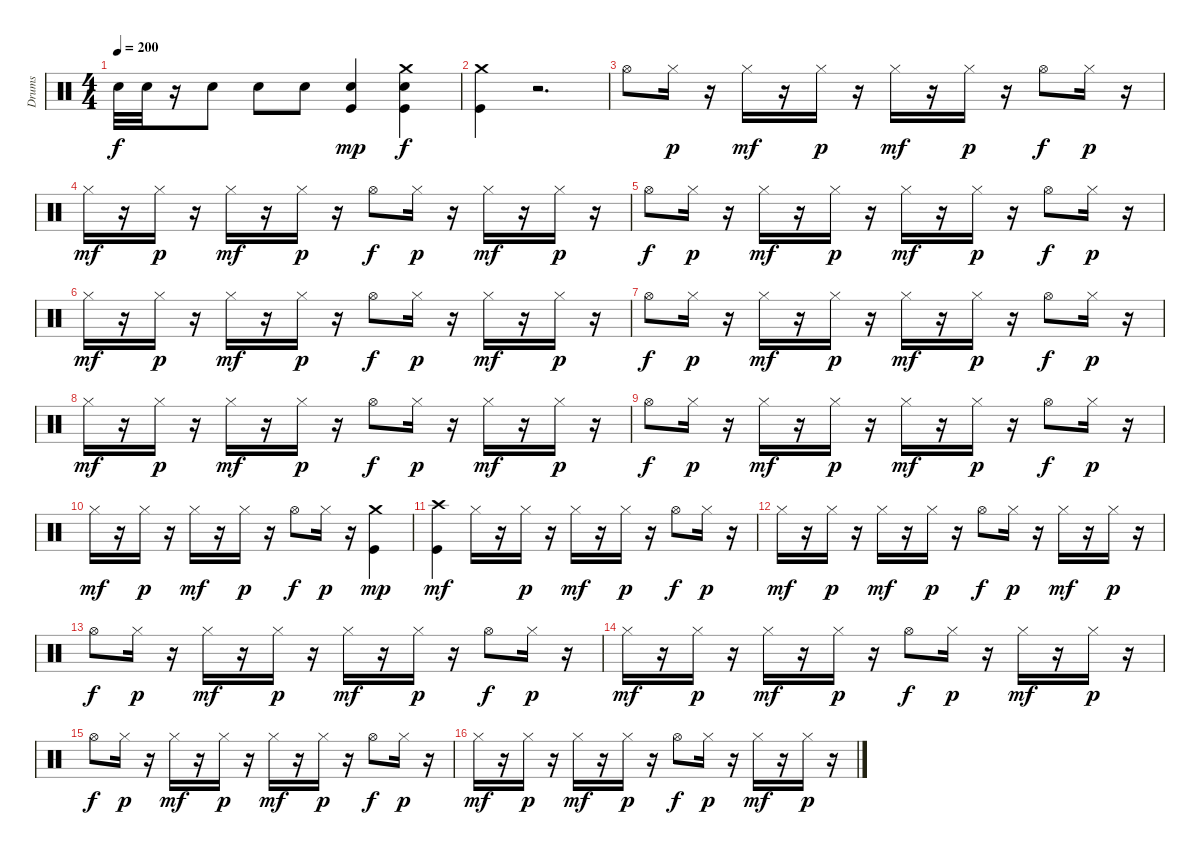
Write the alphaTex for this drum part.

\track ("Drums" "Drums") {instrument percussion}
\staff {score}
\articulation defaults
\ts (4 4)
\tempo 200
\clef neutral
\ks c "Electric Snare (hit)".32{dy f volume 11 balance 8} "Electric Snare (hit)".32
r.16 "Electric Snare (hit)".8 "Electric Snare (hit)".8 "Electric Snare (hit)".8 ("Kick (hit)" "Electric Snare (hit)").4{dy mp} ("Kick (hit)" "Crash medium (hit)" "Electric Snare (hit)").4{dy f} |
("Kick (hit)" "Crash medium (hit)").4 r.2{d} |
"Hi-Hat (open)".8 "Hi-Hat (closed)".16{dy p} r.16 "Hi-Hat (closed)".16{dy mf} r.16 "Hi-Hat (closed)".16{dy p} r.16 "Hi-Hat (closed)".16{dy mf} r.16 "Hi-Hat (closed)".16{dy p} r.16 "Hi-Hat (open)".8{dy f} "Hi-Hat (closed)".16{dy p} r.16 |
"Hi-Hat (closed)".16{dy mf} r.16 "Hi-Hat (closed)".16{dy p} r.16 "Hi-Hat (closed)".16{dy mf} r.16 "Hi-Hat (closed)".16{dy p} r.16 "Hi-Hat (open)".8{dy f} "Hi-Hat (closed)".16{dy p} r.16 "Hi-Hat (closed)".16{dy mf} r.16 "Hi-Hat (closed)".16{dy p} r.16 |
"Hi-Hat (open)".8{dy f} "Hi-Hat (closed)".16{dy p} r.16 "Hi-Hat (closed)".16{dy mf} r.16 "Hi-Hat (closed)".16{dy p} r.16 "Hi-Hat (closed)".16{dy mf} r.16 "Hi-Hat (closed)".16{dy p} r.16 "Hi-Hat (open)".8{dy f} "Hi-Hat (closed)".16{dy p} r.16 |
"Hi-Hat (closed)".16{dy mf} r.16 "Hi-Hat (closed)".16{dy p} r.16 "Hi-Hat (closed)".16{dy mf} r.16 "Hi-Hat (closed)".16{dy p} r.16 "Hi-Hat (open)".8{dy f} "Hi-Hat (closed)".16{dy p} r.16 "Hi-Hat (closed)".16{dy mf} r.16 "Hi-Hat (closed)".16{dy p} r.16 |
"Hi-Hat (open)".8{dy f} "Hi-Hat (closed)".16{dy p} r.16 "Hi-Hat (closed)".16{dy mf} r.16 "Hi-Hat (closed)".16{dy p} r.16 "Hi-Hat (closed)".16{dy mf} r.16 "Hi-Hat (closed)".16{dy p} r.16 "Hi-Hat (open)".8{dy f} "Hi-Hat (closed)".16{dy p} r.16 |
"Hi-Hat (closed)".16{dy mf} r.16 "Hi-Hat (closed)".16{dy p} r.16 "Hi-Hat (closed)".16{dy mf} r.16 "Hi-Hat (closed)".16{dy p} r.16 "Hi-Hat (open)".8{dy f} "Hi-Hat (closed)".16{dy p} r.16 "Hi-Hat (closed)".16{dy mf} r.16 "Hi-Hat (closed)".16{dy p} r.16 |
"Hi-Hat (open)".8{dy f} "Hi-Hat (closed)".16{dy p} r.16 "Hi-Hat (closed)".16{dy mf} r.16 "Hi-Hat (closed)".16{dy p} r.16 "Hi-Hat (closed)".16{dy mf} r.16 "Hi-Hat (closed)".16{dy p} r.16 "Hi-Hat (open)".8{dy f} "Hi-Hat (closed)".16{dy p} r.16 |
"Hi-Hat (closed)".16{dy mf} r.16 "Hi-Hat (closed)".16{dy p} r.16 "Hi-Hat (closed)".16{dy mf} r.16 "Hi-Hat (closed)".16{dy p} r.16 "Hi-Hat (open)".8{dy f} "Hi-Hat (closed)".16{dy p} r.16 ("Crash medium (hit)" "Kick (hit)").4{dy mp} |
("Crash high (hit)" "Kick (hit)").4{dy mf} "Hi-Hat (closed)".16 r.16 "Hi-Hat (closed)".16{dy p} r.16 "Hi-Hat (closed)".16{dy mf} r.16 "Hi-Hat (closed)".16{dy p} r.16 "Hi-Hat (open)".8{dy f} "Hi-Hat (closed)".16{dy p} r.16 |
"Hi-Hat (closed)".16{dy mf} r.16 "Hi-Hat (closed)".16{dy p} r.16 "Hi-Hat (closed)".16{dy mf} r.16 "Hi-Hat (closed)".16{dy p} r.16 "Hi-Hat (open)".8{dy f} "Hi-Hat (closed)".16{dy p} r.16 "Hi-Hat (closed)".16{dy mf} r.16 "Hi-Hat (closed)".16{dy p} r.16 |
"Hi-Hat (open)".8{dy f} "Hi-Hat (closed)".16{dy p} r.16 "Hi-Hat (closed)".16{dy mf} r.16 "Hi-Hat (closed)".16{dy p} r.16 "Hi-Hat (closed)".16{dy mf} r.16 "Hi-Hat (closed)".16{dy p} r.16 "Hi-Hat (open)".8{dy f} "Hi-Hat (closed)".16{dy p} r.16 |
"Hi-Hat (closed)".16{dy mf} r.16 "Hi-Hat (closed)".16{dy p} r.16 "Hi-Hat (closed)".16{dy mf} r.16 "Hi-Hat (closed)".16{dy p} r.16 "Hi-Hat (open)".8{dy f} "Hi-Hat (closed)".16{dy p} r.16 "Hi-Hat (closed)".16{dy mf} r.16 "Hi-Hat (closed)".16{dy p} r.16 |
"Hi-Hat (open)".8{dy f} "Hi-Hat (closed)".16{dy p} r.16 "Hi-Hat (closed)".16{dy mf} r.16 "Hi-Hat (closed)".16{dy p} r.16 "Hi-Hat (closed)".16{dy mf} r.16 "Hi-Hat (closed)".16{dy p} r.16 "Hi-Hat (open)".8{dy f} "Hi-Hat (closed)".16{dy p} r.16 |
"Hi-Hat (closed)".16{dy mf} r.16 "Hi-Hat (closed)".16{dy p} r.16 "Hi-Hat (closed)".16{dy mf} r.16 "Hi-Hat (closed)".16{dy p} r.16 "Hi-Hat (open)".8{dy f} "Hi-Hat (closed)".16{dy p} r.16 "Hi-Hat (closed)".16{dy mf} r.16 "Hi-Hat (closed)".16{dy p} r.16
